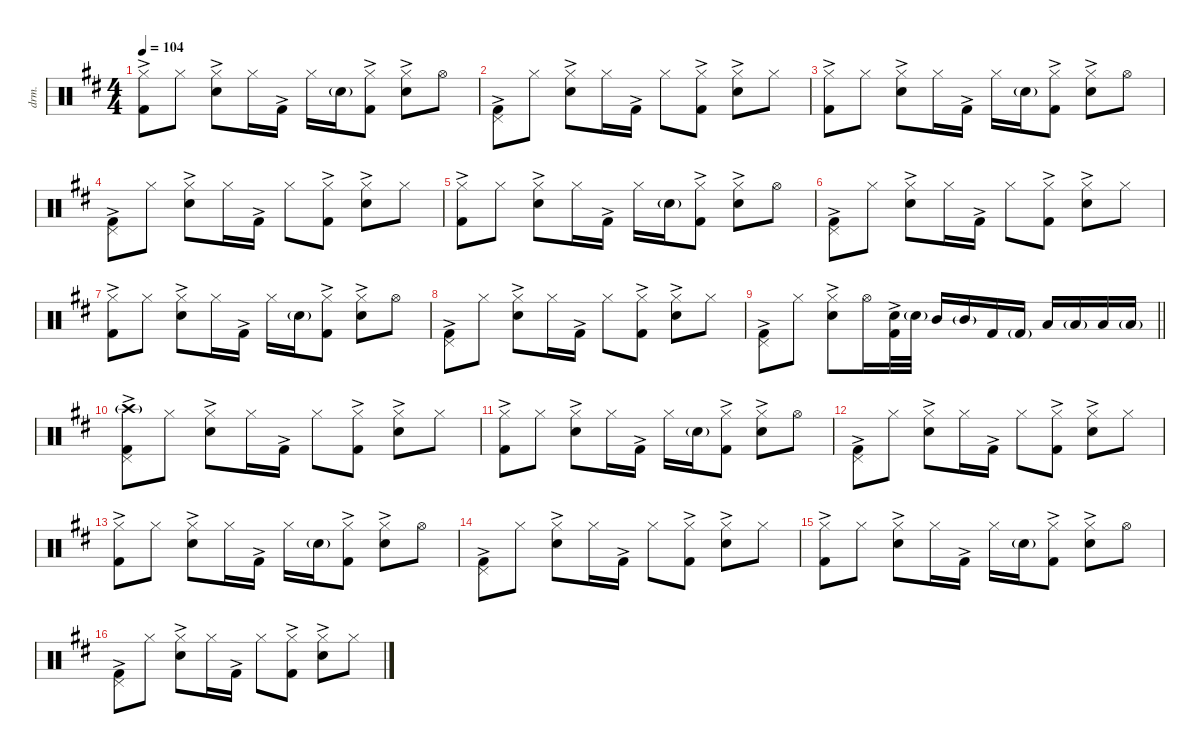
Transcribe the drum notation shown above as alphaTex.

\defaultSystemsLayout 4
\hideDynamics
\bracketExtendMode nobrackets
\otherSystemsTrackNameOrientation horizontal
\track ("Drums" "drm.") {instrument percussion}
\staff {score}
\articulation defaults
\ts (4 4)
\tempo 104
\clef neutral
\ks d
("Hi-Hat (closed)"{acc forcenatural} "Kick (hit) 2"{ac acc forcenatural}).8{dy f} "Hi-Hat (closed)"{acc forcenatural}.8 ("Hi-Hat (closed)"{acc forcenatural} "Snare (hit) 2"{ac acc forcenatural}).8 "Hi-Hat (closed)"{acc forcenatural}.16 "Kick (hit) 2"{ac acc forcenatural}.16 "Hi-Hat (closed)"{acc forcenatural}.16 "Snare (hit) 2"{g acc forcenatural}.16{dy p} ("Hi-Hat (closed)"{acc forcenatural} "Kick (hit) 2"{ac acc forcenatural}).8{dy f} ("Hi-Hat (closed)"{acc forcenatural} "Snare (hit) 2"{ac acc forcenatural}).8 "Hi-Hat (open)"{acc forcenatural}.8 |
("Pedal Hi-Hat (hit)"{acc forcenatural} "Kick (hit) 2"{ac acc forcenatural}).8 "Hi-Hat (closed)"{acc forcenatural}.8 ("Hi-Hat (closed)"{acc forcenatural} "Snare (hit) 2"{ac acc forcenatural}).8 "Hi-Hat (closed)"{acc forcenatural}.16 "Kick (hit) 2"{ac acc forcenatural}.16 "Hi-Hat (closed)"{acc forcenatural}.8 ("Hi-Hat (closed)"{acc forcenatural} "Kick (hit) 2"{ac acc forcenatural}).8 ("Hi-Hat (closed)"{acc forcenatural} "Snare (hit) 2"{ac acc forcenatural}).8 "Hi-Hat (closed)"{acc forcenatural}.8 |
("Hi-Hat (closed)"{acc forcenatural} "Kick (hit) 2"{ac acc forcenatural}).8 "Hi-Hat (closed)"{acc forcenatural}.8 ("Hi-Hat (closed)"{acc forcenatural} "Snare (hit) 2"{ac acc forcenatural}).8 "Hi-Hat (closed)"{acc forcenatural}.16 "Kick (hit) 2"{ac acc forcenatural}.16 "Hi-Hat (closed)"{acc forcenatural}.16 "Snare (hit) 2"{g acc forcenatural}.16{dy p} ("Hi-Hat (closed)"{acc forcenatural} "Kick (hit) 2"{ac acc forcenatural}).8{dy f} ("Hi-Hat (closed)"{acc forcenatural} "Snare (hit) 2"{ac acc forcenatural}).8 "Hi-Hat (open)"{acc forcenatural}.8 |
("Pedal Hi-Hat (hit)"{acc forcenatural} "Kick (hit) 2"{ac acc forcenatural}).8 "Hi-Hat (closed)"{acc forcenatural}.8 ("Hi-Hat (closed)"{acc forcenatural} "Snare (hit) 2"{ac acc forcenatural}).8 "Hi-Hat (closed)"{acc forcenatural}.16 "Kick (hit) 2"{ac acc forcenatural}.16 "Hi-Hat (closed)"{acc forcenatural}.8 ("Hi-Hat (closed)"{acc forcenatural} "Kick (hit) 2"{ac acc forcenatural}).8 ("Hi-Hat (closed)"{acc forcenatural} "Snare (hit) 2"{ac acc forcenatural}).8 "Hi-Hat (closed)"{acc forcenatural}.8 |
("Hi-Hat (closed)"{acc forcenatural} "Kick (hit) 2"{ac acc forcenatural}).8 "Hi-Hat (closed)"{acc forcenatural}.8 ("Hi-Hat (closed)"{acc forcenatural} "Snare (hit) 2"{ac acc forcenatural}).8 "Hi-Hat (closed)"{acc forcenatural}.16 "Kick (hit) 2"{ac acc forcenatural}.16 "Hi-Hat (closed)"{acc forcenatural}.16 "Snare (hit) 2"{g acc forcenatural}.16{dy p} ("Hi-Hat (closed)"{acc forcenatural} "Kick (hit) 2"{ac acc forcenatural}).8{dy f} ("Hi-Hat (closed)"{acc forcenatural} "Snare (hit) 2"{ac acc forcenatural}).8 "Hi-Hat (open)"{acc forcenatural}.8 |
("Pedal Hi-Hat (hit)"{acc forcenatural} "Kick (hit) 2"{ac acc forcenatural}).8 "Hi-Hat (closed)"{acc forcenatural}.8 ("Hi-Hat (closed)"{acc forcenatural} "Snare (hit) 2"{ac acc forcenatural}).8 "Hi-Hat (closed)"{acc forcenatural}.16 "Kick (hit) 2"{ac acc forcenatural}.16 "Hi-Hat (closed)"{acc forcenatural}.8 ("Hi-Hat (closed)"{acc forcenatural} "Kick (hit) 2"{ac acc forcenatural}).8 ("Hi-Hat (closed)"{acc forcenatural} "Snare (hit) 2"{ac acc forcenatural}).8 "Hi-Hat (closed)"{acc forcenatural}.8 |
("Hi-Hat (closed)"{acc forcenatural} "Kick (hit) 2"{ac acc forcenatural}).8 "Hi-Hat (closed)"{acc forcenatural}.8 ("Hi-Hat (closed)"{acc forcenatural} "Snare (hit) 2"{ac acc forcenatural}).8 "Hi-Hat (closed)"{acc forcenatural}.16 "Kick (hit) 2"{ac acc forcenatural}.16 "Hi-Hat (closed)"{acc forcenatural}.16 "Snare (hit) 2"{g acc forcenatural}.16{dy p} ("Hi-Hat (closed)"{acc forcenatural} "Kick (hit) 2"{ac acc forcenatural}).8{dy f} ("Hi-Hat (closed)"{acc forcenatural} "Snare (hit) 2"{ac acc forcenatural}).8 "Hi-Hat (open)"{acc forcenatural}.8 |
("Pedal Hi-Hat (hit)"{acc forcenatural} "Kick (hit) 2"{ac acc forcenatural}).8 "Hi-Hat (closed)"{acc forcenatural}.8 ("Hi-Hat (closed)"{acc forcenatural} "Snare (hit) 2"{ac acc forcenatural}).8 "Hi-Hat (closed)"{acc forcenatural}.16 "Kick (hit) 2"{ac acc forcenatural}.16 "Hi-Hat (closed)"{acc forcenatural}.8 ("Hi-Hat (closed)"{acc forcenatural} "Kick (hit) 2"{ac acc forcenatural}).8 ("Hi-Hat (closed)"{acc forcenatural} "Snare (hit) 2"{ac acc forcenatural}).8 "Hi-Hat (closed)"{acc forcenatural}.8 |
\barLineRight lightlight
("Pedal Hi-Hat (hit)"{acc forcenatural} "Kick (hit) 2"{ac acc forcenatural}).8 "Hi-Hat (closed)"{acc forcenatural}.8 ("Hi-Hat (closed)"{acc forcenatural} "Snare (hit) 2"{ac acc forcenatural}).8 "Hi-Hat (open)"{acc forcenatural}.16 ("Snare (hit) 2"{acc forcenatural} "Kick (hit) 2"{ac acc forcenatural}).32 "Snare (hit) 2"{g acc forcenatural}.32{dy mf} "Mid Tom (hit)"{acc forcenatural}.16{dy f} "Mid Tom (hit)"{g acc forcenatural}.16{dy mf} "Kick (hit) 2"{acc forcenatural}.16{dy f} "Kick (hit) 2"{g acc forcenatural}.16{dy mf} "Low Tom (hit)"{acc forcenatural}.16{dy f} "Low Tom (hit)"{g acc forcenatural}.16{dy mf} "Low Floor Tom (hit)"{acc forcenatural}.16{dy f} "Low Floor Tom (hit)"{g acc forcenatural}.16{dy mf} |
("Pedal Hi-Hat (hit)"{acc forcenatural} "Crash high (hit)"{g acc forcenatural} "Kick (hit) 2"{ac acc forcenatural}).8{dy f} "Hi-Hat (closed)"{acc forcenatural}.8 ("Hi-Hat (closed)"{acc forcenatural} "Snare (hit) 2"{ac acc forcenatural}).8 "Hi-Hat (closed)"{acc forcenatural}.16 "Kick (hit) 2"{ac acc forcenatural}.16 "Hi-Hat (closed)"{acc forcenatural}.8 ("Hi-Hat (closed)"{acc forcenatural} "Kick (hit) 2"{ac acc forcenatural}).8 ("Hi-Hat (closed)"{acc forcenatural} "Snare (hit) 2"{ac acc forcenatural}).8 "Hi-Hat (closed)"{acc forcenatural}.8 |
("Hi-Hat (closed)"{acc forcenatural} "Kick (hit) 2"{ac acc forcenatural}).8 "Hi-Hat (closed)"{acc forcenatural}.8 ("Hi-Hat (closed)"{acc forcenatural} "Snare (hit) 2"{ac acc forcenatural}).8 "Hi-Hat (closed)"{acc forcenatural}.16 "Kick (hit) 2"{ac acc forcenatural}.16 "Hi-Hat (closed)"{acc forcenatural}.16 "Snare (hit) 2"{g acc forcenatural}.16{dy p} ("Hi-Hat (closed)"{acc forcenatural} "Kick (hit) 2"{ac acc forcenatural}).8{dy f} ("Hi-Hat (closed)"{acc forcenatural} "Snare (hit) 2"{ac acc forcenatural}).8 "Hi-Hat (open)"{acc forcenatural}.8 |
("Pedal Hi-Hat (hit)"{acc forcenatural} "Kick (hit) 2"{ac acc forcenatural}).8 "Hi-Hat (closed)"{acc forcenatural}.8 ("Hi-Hat (closed)"{acc forcenatural} "Snare (hit) 2"{ac acc forcenatural}).8 "Hi-Hat (closed)"{acc forcenatural}.16 "Kick (hit) 2"{ac acc forcenatural}.16 "Hi-Hat (closed)"{acc forcenatural}.8 ("Hi-Hat (closed)"{acc forcenatural} "Kick (hit) 2"{ac acc forcenatural}).8 ("Hi-Hat (closed)"{acc forcenatural} "Snare (hit) 2"{ac acc forcenatural}).8 "Hi-Hat (closed)"{acc forcenatural}.8 |
("Hi-Hat (closed)"{acc forcenatural} "Kick (hit) 2"{ac acc forcenatural}).8 "Hi-Hat (closed)"{acc forcenatural}.8 ("Hi-Hat (closed)"{acc forcenatural} "Snare (hit) 2"{ac acc forcenatural}).8 "Hi-Hat (closed)"{acc forcenatural}.16 "Kick (hit) 2"{ac acc forcenatural}.16 "Hi-Hat (closed)"{acc forcenatural}.16 "Snare (hit) 2"{g acc forcenatural}.16{dy p} ("Hi-Hat (closed)"{acc forcenatural} "Kick (hit) 2"{ac acc forcenatural}).8{dy f} ("Hi-Hat (closed)"{acc forcenatural} "Snare (hit) 2"{ac acc forcenatural}).8 "Hi-Hat (open)"{acc forcenatural}.8 |
("Pedal Hi-Hat (hit)"{acc forcenatural} "Kick (hit) 2"{ac acc forcenatural}).8 "Hi-Hat (closed)"{acc forcenatural}.8 ("Hi-Hat (closed)"{acc forcenatural} "Snare (hit) 2"{ac acc forcenatural}).8 "Hi-Hat (closed)"{acc forcenatural}.16 "Kick (hit) 2"{ac acc forcenatural}.16 "Hi-Hat (closed)"{acc forcenatural}.8 ("Hi-Hat (closed)"{acc forcenatural} "Kick (hit) 2"{ac acc forcenatural}).8 ("Hi-Hat (closed)"{acc forcenatural} "Snare (hit) 2"{ac acc forcenatural}).8 "Hi-Hat (closed)"{acc forcenatural}.8 |
("Hi-Hat (closed)"{acc forcenatural} "Kick (hit) 2"{ac acc forcenatural}).8 "Hi-Hat (closed)"{acc forcenatural}.8 ("Hi-Hat (closed)"{acc forcenatural} "Snare (hit) 2"{ac acc forcenatural}).8 "Hi-Hat (closed)"{acc forcenatural}.16 "Kick (hit) 2"{ac acc forcenatural}.16 "Hi-Hat (closed)"{acc forcenatural}.16 "Snare (hit) 2"{g acc forcenatural}.16{dy p} ("Hi-Hat (closed)"{acc forcenatural} "Kick (hit) 2"{ac acc forcenatural}).8{dy f} ("Hi-Hat (closed)"{acc forcenatural} "Snare (hit) 2"{ac acc forcenatural}).8 "Hi-Hat (open)"{acc forcenatural}.8 |
("Pedal Hi-Hat (hit)"{acc forcenatural} "Kick (hit) 2"{ac acc forcenatural}).8 "Hi-Hat (closed)"{acc forcenatural}.8 ("Hi-Hat (closed)"{acc forcenatural} "Snare (hit) 2"{ac acc forcenatural}).8 "Hi-Hat (closed)"{acc forcenatural}.16 "Kick (hit) 2"{ac acc forcenatural}.16 "Hi-Hat (closed)"{acc forcenatural}.8 ("Hi-Hat (closed)"{acc forcenatural} "Kick (hit) 2"{ac acc forcenatural}).8 ("Hi-Hat (closed)"{acc forcenatural} "Snare (hit) 2"{ac acc forcenatural}).8 "Hi-Hat (closed)"{acc forcenatural}.8
